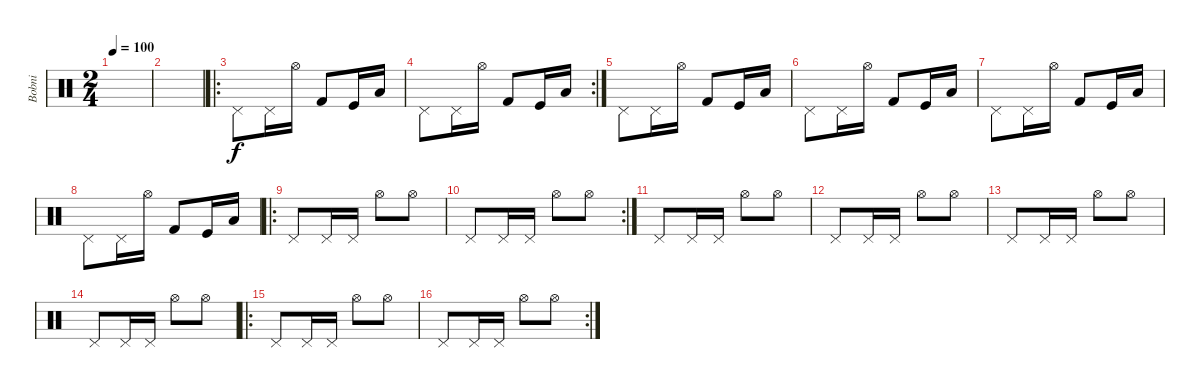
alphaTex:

\track ("Bobni" "Bobni") {instrument percussion}
\staff {score}
\articulation defaults
\ts (2 4)
\tempo 100
\clef neutral
\ks c
|
|
\ro "Pedal Hi-Hat (hit)".8 "Pedal Hi-Hat (hit)".16 "Hi-Hat (open)".16 "Kick (hit) 2".8 "Kick (hit)".16 "Low Floor Tom (hit)".16
|
\rc 2 "Pedal Hi-Hat (hit)".8 "Pedal Hi-Hat (hit)".16 "Hi-Hat (open)".16 "Kick (hit) 2".8 "Kick (hit)".16 "Low Floor Tom (hit)".16
|
"Pedal Hi-Hat (hit)".8 "Pedal Hi-Hat (hit)".16 "Hi-Hat (open)".16 "Kick (hit) 2".8 "Kick (hit)".16 "Low Floor Tom (hit)".16 |
"Pedal Hi-Hat (hit)".8 "Pedal Hi-Hat (hit)".16 "Hi-Hat (open)".16 "Kick (hit) 2".8 "Kick (hit)".16 "Low Floor Tom (hit)".16 |
"Pedal Hi-Hat (hit)".8 "Pedal Hi-Hat (hit)".16 "Hi-Hat (open)".16 "Kick (hit) 2".8 "Kick (hit)".16 "Low Floor Tom (hit)".16 |
"Pedal Hi-Hat (hit)".8 "Pedal Hi-Hat (hit)".16 "Hi-Hat (open)".16 "Kick (hit) 2".8 "Kick (hit)".16 "Low Floor Tom (hit)".16 |
\ro "Pedal Hi-Hat (hit)".8 "Pedal Hi-Hat (hit)".16 "Pedal Hi-Hat (hit)".16 "Hi-Hat (open)".8 "Hi-Hat (open)".8
|
\rc 2 "Pedal Hi-Hat (hit)".8 "Pedal Hi-Hat (hit)".16 "Pedal Hi-Hat (hit)".16 "Hi-Hat (open)".8 "Hi-Hat (open)".8
|
"Pedal Hi-Hat (hit)".8 "Pedal Hi-Hat (hit)".16 "Pedal Hi-Hat (hit)".16 "Hi-Hat (open)".8 "Hi-Hat (open)".8 |
"Pedal Hi-Hat (hit)".8 "Pedal Hi-Hat (hit)".16 "Pedal Hi-Hat (hit)".16 "Hi-Hat (open)".8 "Hi-Hat (open)".8 |
"Pedal Hi-Hat (hit)".8 "Pedal Hi-Hat (hit)".16 "Pedal Hi-Hat (hit)".16 "Hi-Hat (open)".8 "Hi-Hat (open)".8 |
"Pedal Hi-Hat (hit)".8 "Pedal Hi-Hat (hit)".16 "Pedal Hi-Hat (hit)".16 "Hi-Hat (open)".8 "Hi-Hat (open)".8 |
\ro "Pedal Hi-Hat (hit)".8 "Pedal Hi-Hat (hit)".16 "Pedal Hi-Hat (hit)".16 "Hi-Hat (open)".8 "Hi-Hat (open)".8
|
\rc 2 "Pedal Hi-Hat (hit)".8 "Pedal Hi-Hat (hit)".16 "Pedal Hi-Hat (hit)".16 "Hi-Hat (open)".8 "Hi-Hat (open)".8
